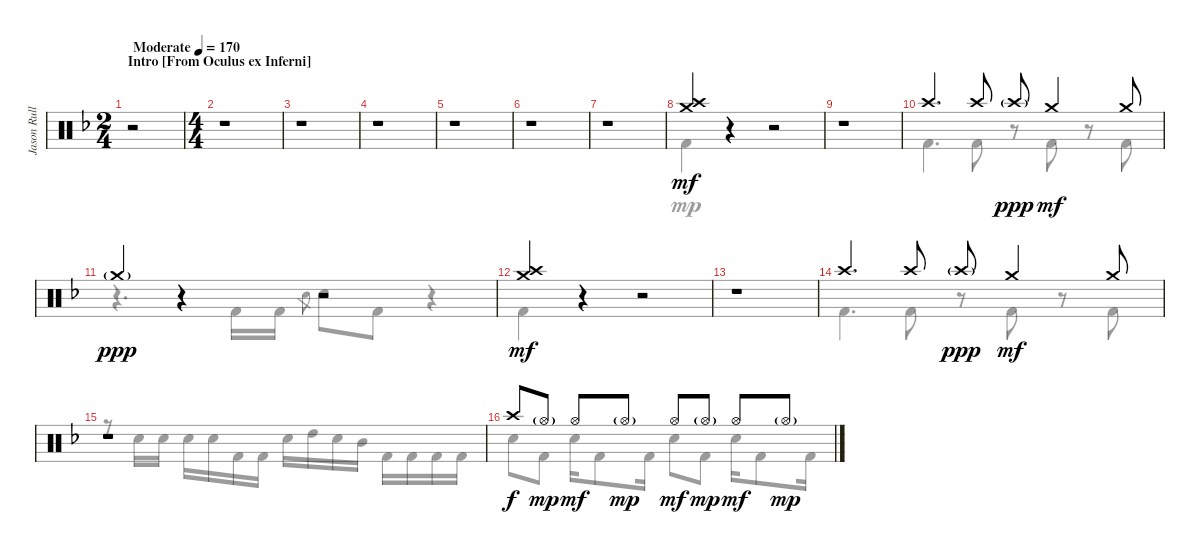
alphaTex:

\track ("Jason Rullo Drums" "Jason Rull") {instrument percussion}
\staff {score}
\articulation defaults
\voice
\ts (2 4)
\section ("" "Intro [From Oculus ex Inferni]")
\tempo (170 "Moderate")
\clef neutral
\ks dminor
r.2{dy mf} |
\ts (4 4)
r.1 |
r.1 |
r.1 |
r.1 |
r.1 |
r.1 |
("Crash high (hit)" "Crash medium (hit)").4 r.4 r.2 |
r.1 |
"Crash high (hit)".4{d} "Crash high (hit)".8 "Crash high (hit)"{g}.8{dy ppp} "Crash medium (hit)".4{dy mf} "Crash medium (hit)".8 |
"Crash medium (hit)"{g}.4{dy ppp} r.4 r.2 |
("Crash high (hit)" "Crash medium (hit)").4{dy mf} r.4 r.2 |
r.1 |
"Crash high (hit)".4{d} "Crash high (hit)".8 "Crash high (hit)"{g}.8{dy ppp} "Crash medium (hit)".4{dy mf} "Crash medium (hit)".8 |
r.1 |
"Crash high (hit)".8{dy f} "Hi-Hat (open)"{g}.8{dy mp} "Hi-Hat (open)".8{dy mf} "Hi-Hat (open)"{g}.8{dy mp} "Hi-Hat (open)".8{dy mf} "Hi-Hat (open)"{g}.8{dy mp} "Hi-Hat (open)".8{dy mf} "Hi-Hat (open)"{g}.8{dy mp}
\voice
\clef neutral
\ottava regular
\simile none
\ks dminor
|
|
|
|
|
|
|
"Kick (hit) 2".4 r.4 r.2 |
r.1 |
"Kick (hit) 2".4{d} "Kick (hit) 2".8 r.8 "Kick (hit) 2".8 r.8 "Kick (hit) 2".8 |
r.4{d} "Kick (hit) 2".16 "Kick (hit) 2".16 "Electric Snare (hit)".8{gr} "Electric Snare (hit)".8 "Kick (hit) 2".8 r.4 |
"Kick (hit) 2".4 r.4 r.2 |
r.1 |
"Kick (hit) 2".4{d} "Kick (hit) 2".8 r.8 "Kick (hit) 2".8 r.8 "Kick (hit) 2".8 |
r.8 "Electric Snare (hit)".16 "Electric Snare (hit)".16 "Electric Snare (hit)".16 "Electric Snare (hit)".16 "Kick (hit) 2".16 "Kick (hit) 2".16 "Electric Snare (hit)".16 "High Tom (hit)".16 "Electric Snare (hit)".16 "Mid Tom (hit)".16 "Kick (hit) 2".16 "Kick (hit) 2".16 "Kick (hit) 2".16 "Kick (hit) 2".16 |
"Electric Snare (hit)".8 "Kick (hit) 2".8 "Electric Snare (hit)".16 "Kick (hit) 2".8 "Kick (hit) 2".16 "Electric Snare (hit)".8 "Kick (hit) 2".8 "Electric Snare (hit)".16 "Kick (hit) 2".8 "Kick (hit) 2".16
